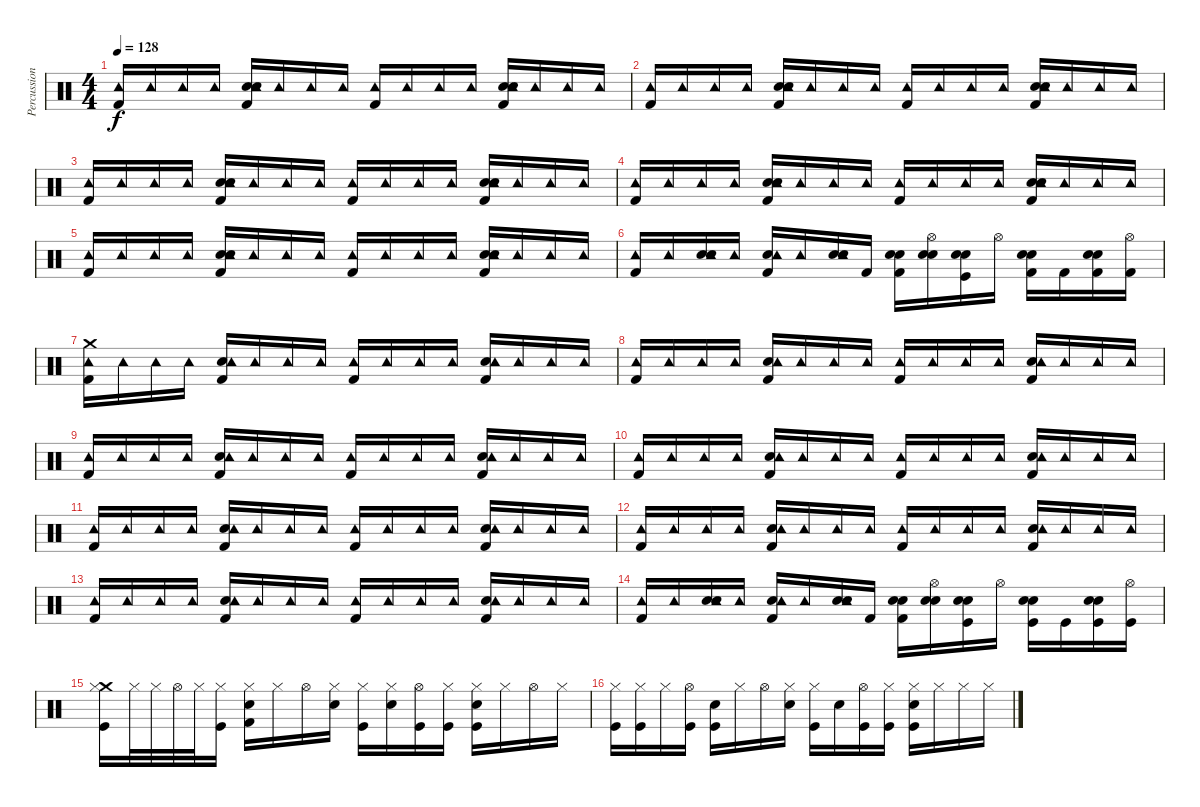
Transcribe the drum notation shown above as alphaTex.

\track ("Percussion" "Percussion") {instrument percussion}
\staff {score}
\articulation defaults
\ts (4 4)
\tempo 128
\clef neutral
\ks c
("Kick (hit) 2" "Tambourine (hit)").16{dy f} "Tambourine (hit)".16 "Tambourine (hit)".16 "Tambourine (hit)".16 ("Kick (hit) 2" "Snare (hit) 2" "Hand Clap (hit)" "Tambourine (hit)").16 "Tambourine (hit)".16 "Tambourine (hit)".16 "Tambourine (hit)".16 ("Kick (hit) 2" "Tambourine (hit)").16 "Tambourine (hit)".16 "Tambourine (hit)".16 "Tambourine (hit)".16 ("Kick (hit) 2" "Snare (hit) 2" "Hand Clap (hit)" "Tambourine (hit)").16 "Tambourine (hit)".16 "Tambourine (hit)".16 "Tambourine (hit)".16 |
("Kick (hit) 2" "Tambourine (hit)").16 "Tambourine (hit)".16 "Tambourine (hit)".16 "Tambourine (hit)".16 ("Kick (hit) 2" "Snare (hit) 2" "Hand Clap (hit)" "Tambourine (hit)").16 "Tambourine (hit)".16 "Tambourine (hit)".16 "Tambourine (hit)".16 ("Kick (hit) 2" "Tambourine (hit)").16 "Tambourine (hit)".16 "Tambourine (hit)".16 "Tambourine (hit)".16 ("Kick (hit) 2" "Snare (hit) 2" "Hand Clap (hit)" "Tambourine (hit)").16 "Tambourine (hit)".16 "Tambourine (hit)".16 "Tambourine (hit)".16 |
("Kick (hit) 2" "Tambourine (hit)").16 "Tambourine (hit)".16 "Tambourine (hit)".16 "Tambourine (hit)".16 ("Kick (hit) 2" "Snare (hit) 2" "Hand Clap (hit)" "Tambourine (hit)").16 "Tambourine (hit)".16 "Tambourine (hit)".16 "Tambourine (hit)".16 ("Kick (hit) 2" "Tambourine (hit)").16 "Tambourine (hit)".16 "Tambourine (hit)".16 "Tambourine (hit)".16 ("Kick (hit) 2" "Snare (hit) 2" "Hand Clap (hit)" "Tambourine (hit)").16 "Tambourine (hit)".16 "Tambourine (hit)".16 "Tambourine (hit)".16 |
("Kick (hit) 2" "Tambourine (hit)").16 "Tambourine (hit)".16 "Tambourine (hit)".16 "Tambourine (hit)".16 ("Kick (hit) 2" "Snare (hit) 2" "Hand Clap (hit)" "Tambourine (hit)").16 "Tambourine (hit)".16 "Tambourine (hit)".16 "Tambourine (hit)".16 ("Kick (hit) 2" "Tambourine (hit)").16 "Tambourine (hit)".16 "Tambourine (hit)".16 "Tambourine (hit)".16 ("Kick (hit) 2" "Snare (hit) 2" "Hand Clap (hit)" "Tambourine (hit)").16 "Tambourine (hit)".16 "Tambourine (hit)".16 "Tambourine (hit)".16 |
("Kick (hit) 2" "Tambourine (hit)").16 "Tambourine (hit)".16 "Tambourine (hit)".16 "Tambourine (hit)".16 ("Kick (hit) 2" "Snare (hit) 2" "Hand Clap (hit)" "Tambourine (hit)").16 "Tambourine (hit)".16 "Tambourine (hit)".16 "Tambourine (hit)".16 ("Kick (hit) 2" "Tambourine (hit)").16 "Tambourine (hit)".16 "Tambourine (hit)".16 "Tambourine (hit)".16 ("Kick (hit) 2" "Snare (hit) 2" "Hand Clap (hit)" "Tambourine (hit)").16 "Tambourine (hit)".16 "Tambourine (hit)".16 "Tambourine (hit)".16 |
("Kick (hit) 2" "Tambourine (hit)").16 "Tambourine (hit)".16 ("Snare (hit) 2" "Hand Clap (hit)" "Tambourine (hit)").16 "Tambourine (hit)".16 ("Kick (hit) 2" "Snare (hit) 2" "Tambourine (hit)").16 "Tambourine (hit)".16 ("Snare (hit) 2" "Hand Clap (hit)" "Tambourine (hit)").16 "Kick (hit) 2".16 ("Kick (hit) 2" "Snare (hit) 2" "Hand Clap (hit)").16 ("Snare (hit) 2" "Hi-Hat (open)" "Hand Clap (hit)").16 ("Kick (hit)" "Snare (hit) 2" "Hand Clap (hit)").16 "Hi-Hat (open)".16 ("Kick (hit) 2" "Snare (hit) 2" "Hand Clap (hit)").16 "Kick (hit) 2".16 ("Kick (hit) 2" "Snare (hit) 2" "Hand Clap (hit)").16 ("Kick (hit) 2" "Hi-Hat (open)").16 |
("Kick (hit) 2" "Crash medium (hit)" "Tambourine (hit)").16 "Tambourine (hit)".16 "Tambourine (hit)".16 "Tambourine (hit)".16 ("Kick (hit) 2" "Snare (hit) 2" "Tambourine (hit)").16 "Tambourine (hit)".16 "Tambourine (hit)".16 "Tambourine (hit)".16 ("Kick (hit) 2" "Tambourine (hit)").16 "Tambourine (hit)".16 "Tambourine (hit)".16 "Tambourine (hit)".16 ("Kick (hit) 2" "Snare (hit) 2" "Tambourine (hit)").16 "Tambourine (hit)".16 "Tambourine (hit)".16 "Tambourine (hit)".16 |
("Kick (hit) 2" "Tambourine (hit)").16 "Tambourine (hit)".16 "Tambourine (hit)".16 "Tambourine (hit)".16 ("Kick (hit) 2" "Snare (hit) 2" "Tambourine (hit)").16 "Tambourine (hit)".16 "Tambourine (hit)".16 "Tambourine (hit)".16 ("Kick (hit) 2" "Tambourine (hit)").16 "Tambourine (hit)".16 "Tambourine (hit)".16 "Tambourine (hit)".16 ("Kick (hit) 2" "Snare (hit) 2" "Tambourine (hit)").16 "Tambourine (hit)".16 "Tambourine (hit)".16 "Tambourine (hit)".16 |
("Kick (hit) 2" "Tambourine (hit)").16 "Tambourine (hit)".16 "Tambourine (hit)".16 "Tambourine (hit)".16 ("Kick (hit) 2" "Snare (hit) 2" "Tambourine (hit)").16 "Tambourine (hit)".16 "Tambourine (hit)".16 "Tambourine (hit)".16 ("Kick (hit) 2" "Tambourine (hit)").16 "Tambourine (hit)".16 "Tambourine (hit)".16 "Tambourine (hit)".16 ("Kick (hit) 2" "Snare (hit) 2" "Tambourine (hit)").16 "Tambourine (hit)".16 "Tambourine (hit)".16 "Tambourine (hit)".16 |
("Kick (hit) 2" "Tambourine (hit)").16 "Tambourine (hit)".16 "Tambourine (hit)".16 "Tambourine (hit)".16 ("Kick (hit) 2" "Snare (hit) 2" "Tambourine (hit)").16 "Tambourine (hit)".16 "Tambourine (hit)".16 "Tambourine (hit)".16 ("Kick (hit) 2" "Tambourine (hit)").16 "Tambourine (hit)".16 "Tambourine (hit)".16 "Tambourine (hit)".16 ("Kick (hit) 2" "Snare (hit) 2" "Tambourine (hit)").16 "Tambourine (hit)".16 "Tambourine (hit)".16 "Tambourine (hit)".16 |
("Kick (hit) 2" "Tambourine (hit)").16 "Tambourine (hit)".16 "Tambourine (hit)".16 "Tambourine (hit)".16 ("Kick (hit) 2" "Snare (hit) 2" "Tambourine (hit)").16 "Tambourine (hit)".16 "Tambourine (hit)".16 "Tambourine (hit)".16 ("Kick (hit) 2" "Tambourine (hit)").16 "Tambourine (hit)".16 "Tambourine (hit)".16 "Tambourine (hit)".16 ("Kick (hit) 2" "Snare (hit) 2" "Tambourine (hit)").16 "Tambourine (hit)".16 "Tambourine (hit)".16 "Tambourine (hit)".16 |
("Kick (hit) 2" "Tambourine (hit)").16 "Tambourine (hit)".16 "Tambourine (hit)".16 "Tambourine (hit)".16 ("Kick (hit) 2" "Snare (hit) 2" "Tambourine (hit)").16 "Tambourine (hit)".16 "Tambourine (hit)".16 "Tambourine (hit)".16 ("Kick (hit) 2" "Tambourine (hit)").16 "Tambourine (hit)".16 "Tambourine (hit)".16 "Tambourine (hit)".16 ("Kick (hit) 2" "Snare (hit) 2" "Tambourine (hit)").16 "Tambourine (hit)".16 "Tambourine (hit)".16 "Tambourine (hit)".16 |
("Kick (hit) 2" "Tambourine (hit)").16 "Tambourine (hit)".16 "Tambourine (hit)".16 "Tambourine (hit)".16 ("Kick (hit) 2" "Snare (hit) 2" "Tambourine (hit)").16 "Tambourine (hit)".16 "Tambourine (hit)".16 "Tambourine (hit)".16 ("Kick (hit) 2" "Tambourine (hit)").16 "Tambourine (hit)".16 "Tambourine (hit)".16 "Tambourine (hit)".16 ("Kick (hit) 2" "Snare (hit) 2" "Tambourine (hit)").16 "Tambourine (hit)".16 "Tambourine (hit)".16 "Tambourine (hit)".16 |
("Kick (hit) 2" "Tambourine (hit)").16 "Tambourine (hit)".16 ("Snare (hit) 2" "Hand Clap (hit)" "Tambourine (hit)").16 "Tambourine (hit)".16 ("Kick (hit) 2" "Snare (hit) 2" "Tambourine (hit)").16 "Tambourine (hit)".16 ("Snare (hit) 2" "Hand Clap (hit)" "Tambourine (hit)").16 "Kick (hit) 2".16 ("Kick (hit) 2" "Snare (hit) 2" "Hand Clap (hit)").16 ("Snare (hit) 2" "Hi-Hat (open)" "Hand Clap (hit)").16 ("Kick (hit)" "Snare (hit) 2" "Hand Clap (hit)").16 "Hi-Hat (open)".16 ("Kick (hit)" "Snare (hit) 2" "Hand Clap (hit)").16 "Kick (hit)".16 ("Kick (hit)" "Snare (hit) 2" "Hand Clap (hit)").16 ("Kick (hit)" "Hi-Hat (open)").16 |
("Kick (hit)" "Crash medium (hit)" "Hi-Hat (closed)").16 "Hi-Hat (closed)".32 "Hi-Hat (closed)".32 "Hi-Hat (open)".32 "Hi-Hat (closed)".32 ("Kick (hit)" "Hi-Hat (closed)").16 ("Kick (hit) 2" "Snare (hit) 2" "Hi-Hat (closed)").16 "Hi-Hat (closed)".16 "Hi-Hat (open)".16 ("Snare (hit) 2" "Hi-Hat (closed)").16 ("Kick (hit)" "Hi-Hat (closed)").16 ("Snare (hit) 2" "Hi-Hat (closed)").16 ("Kick (hit)" "Hi-Hat (open)").16 ("Kick (hit)" "Hi-Hat (closed)").16 ("Kick (hit)" "Snare (hit) 2" "Hi-Hat (closed)").16 "Hi-Hat (closed)".16 "Hi-Hat (open)".16 "Hi-Hat (closed)".16 |
("Kick (hit)" "Hi-Hat (closed)").16 ("Kick (hit)" "Hi-Hat (closed)").16 "Hi-Hat (closed)".16 ("Kick (hit)" "Hi-Hat (open)").16 ("Kick (hit)" "Snare (hit) 2").16 "Hi-Hat (closed)".16 "Hi-Hat (open)".16 ("Snare (hit) 2" "Hi-Hat (closed)").16 ("Kick (hit)" "Hi-Hat (closed)").16 "Snare (hit) 2".16 ("Kick (hit)" "Hi-Hat (open)").16 ("Kick (hit)" "Hi-Hat (closed)").16 ("Kick (hit)" "Snare (hit) 2" "Hi-Hat (closed)").16 "Hi-Hat (closed)".16 "Hi-Hat (closed)".16 "Hi-Hat (closed)".16
